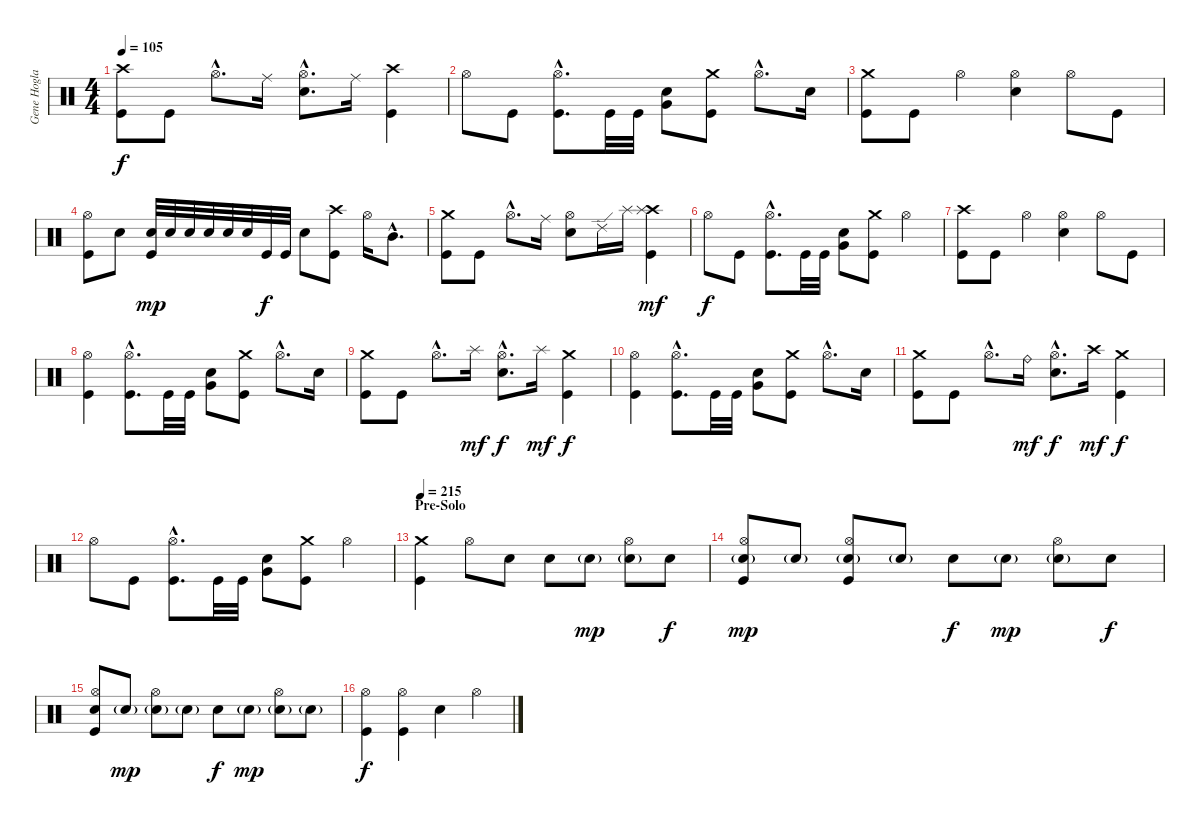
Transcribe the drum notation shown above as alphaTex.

\track ("Gene Hoglan" "Gene Hogla") {instrument percussion}
\staff {score}
\articulation defaults
\ts (4 4)
\tempo 105
\clef neutral
\ks c
("Crash high (hit)" "Kick (hit)").8{dy f} "Kick (hit)".8 "Hi-Hat (open)"{hac}.8{d} "Ride (middle)".16 ("Hi-Hat (open)"{hac} "Electric Snare (hit)"{hac}).8{d} "Ride (middle)".16 ("Crash high (hit)" "Kick (hit)").4 |
"Hi-Hat (open)".8 "Kick (hit)".8 ("Hi-Hat (open)"{hac} "Kick (hit)"{hac}).8{d} "Kick (hit)".32 "Kick (hit)".32 ("Very Low Tom (hit)" "Electric Snare (hit)").8 ("Crash medium (hit)" "Kick (hit)").8 "Hi-Hat (open)"{hac}.8{d} "Electric Snare (hit)".16 |
("Crash medium (hit)" "Kick (hit)").8 "Kick (hit)".8 "Hi-Hat (open)".4 ("Hi-Hat (open)" "Electric Snare (hit)").4 "Hi-Hat (open)".8 "Kick (hit)".8 |
("Hi-Hat (open)" "Kick (hit)").8 "Electric Snare (hit)".8 ("Electric Snare (hit)" "Kick (hit)").32{dy mp} "Electric Snare (hit)".32 "Electric Snare (hit)".32 "Electric Snare (hit)".32 "Electric Snare (hit)".32 "Electric Snare (hit)".32 "Kick (hit)".32{dy f} "Kick (hit)".32 "Electric Snare (hit)".8 ("Crash high (hit)" "Kick (hit)").8 "Hi-Hat (open)".16 "Mid Tom (hit)"{hac}.8{d} |
("Crash medium (hit)" "Kick (hit)").8 "Kick (hit)".8 "Hi-Hat (open)"{hac}.8{d} "Ride (middle)".16 ("Hi-Hat (open)" "Electric Snare (hit)").8 "Ride (edge) 2".16 "Splash (hit)".16 ("Crash high (hit)" "Splash (hit)" "Kick (hit)").4{dy mf} |
"Hi-Hat (open)".8{dy f} "Kick (hit)".8 ("Hi-Hat (open)"{hac} "Kick (hit)"{hac}).8{d} "Kick (hit)".32 "Kick (hit)".32 ("Very Low Tom (hit)" "Electric Snare (hit)").8 ("Crash medium (hit)" "Kick (hit)").8 "Hi-Hat (open)".4 |
("Crash high (hit)" "Kick (hit)").8 "Kick (hit)".8 "Hi-Hat (open)".4 ("Hi-Hat (open)" "Electric Snare (hit)").4 "Hi-Hat (open)".8 "Kick (hit)".8 |
("Hi-Hat (open)" "Kick (hit)").4 ("Hi-Hat (open)"{hac} "Kick (hit)"{hac}).8{d} "Kick (hit)".32 "Kick (hit)".32 ("Very Low Tom (hit)" "Electric Snare (hit)").8 ("Crash medium (hit)" "Kick (hit)").8 "Hi-Hat (open)"{hac}.8{d} "Electric Snare (hit)".16 |
("Crash medium (hit)" "Kick (hit)").8 "Kick (hit)".8 "Hi-Hat (open)"{hac}.8{d} "Splash (hit)".16{dy mf} ("Hi-Hat (open)"{hac} "Electric Snare (hit)"{hac}).8{d dy f} "Splash (hit)".16{dy mf} ("Crash medium (hit)" "Kick (hit)").4{dy f} |
("Hi-Hat (open)" "Kick (hit)").4 ("Hi-Hat (open)"{hac} "Kick (hit)"{hac}).8{d} "Kick (hit)".32 "Kick (hit)".32 ("Very Low Tom (hit)" "Electric Snare (hit)").8 ("Crash medium (hit)" "Kick (hit)").8 "Hi-Hat (open)"{hac}.8{d} "Electric Snare (hit)".16 |
("Crash medium (hit)" "Kick (hit)").8 "Kick (hit)".8 "Hi-Hat (open)"{hac}.8{d} "Ride (bell)".16{dy mf} ("Hi-Hat (open)"{hac} "Electric Snare (hit)"{hac}).8{d dy f} "Crash high (hit)".16{dy mf} ("Crash medium (hit)" "Kick (hit)").4{dy f} |
"Hi-Hat (open)".8 "Kick (hit)".8 ("Hi-Hat (open)"{hac} "Kick (hit)"{hac}).8{d} "Kick (hit)".32 "Kick (hit)".32 ("Very Low Tom (hit)" "Electric Snare (hit)").8 ("Crash medium (hit)" "Kick (hit)").8 "Hi-Hat (open)".4 |
\section ("" "Pre-Solo")
\tempo 215
("Crash medium (hit)" "Kick (hit)").4 "Hi-Hat (open)".8 "Electric Snare (hit)".8 "Electric Snare (hit)".8 "Electric Snare (hit)"{g}.8{dy mp} ("Hi-Hat (open)" "Electric Snare (hit)"{g}).8 "Electric Snare (hit)".8{dy f} |
("Hi-Hat (open)" "Electric Snare (hit)"{g} "Kick (hit)").8{dy mp} "Electric Snare (hit)"{g}.8 ("Hi-Hat (open)" "Electric Snare (hit)"{g} "Kick (hit)").8 "Electric Snare (hit)"{g}.8 "Electric Snare (hit)".8{dy f} "Electric Snare (hit)"{g}.8{dy mp} ("Hi-Hat (open)" "Electric Snare (hit)"{g}).8 "Electric Snare (hit)".8{dy f} |
("Hi-Hat (open)" "Electric Snare (hit)" "Kick (hit)").8 "Electric Snare (hit)"{g}.8{dy mp} ("Hi-Hat (open)" "Electric Snare (hit)"{g}).8 "Electric Snare (hit)"{g}.8 "Electric Snare (hit)".8{dy f} "Electric Snare (hit)"{g}.8{dy mp} ("Hi-Hat (open)" "Electric Snare (hit)"{g}).8 "Electric Snare (hit)"{g}.8 |
("Hi-Hat (open)" "Kick (hit)").4{dy f} ("Hi-Hat (open)" "Kick (hit)").4 "Electric Snare (hit)".4 "Hi-Hat (open)".4
